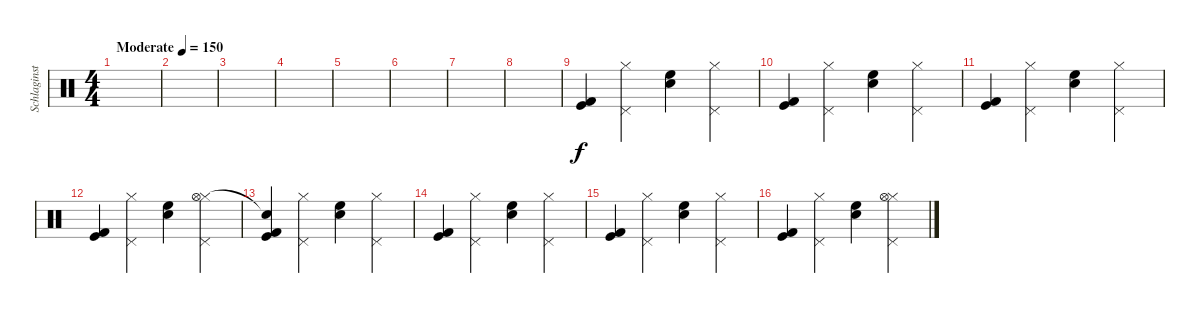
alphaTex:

\track ("Schlaginstrumente - Auswahl" "Schlaginst") {instrument percussion}
\staff {score}
\articulation defaults
\ts (4 4)
\tempo (150 "Moderate")
\clef neutral
\ks c
|
|
|
|
|
|
|
|
("Kick (hit) 2" "Kick (hit)").4 ("Pedal Hi-Hat (hit)" "Hi-Hat (closed)").4 ("High Floor Tom (hit)" "Snare (hit) 2").4 ("Pedal Hi-Hat (hit)" "Hi-Hat (closed)").4 |
("Kick (hit) 2" "Kick (hit)").4 ("Pedal Hi-Hat (hit)" "Hi-Hat (closed)").4 ("High Floor Tom (hit)" "Snare (hit) 2").4 ("Pedal Hi-Hat (hit)" "Hi-Hat (closed)").4 |
("Kick (hit) 2" "Kick (hit)").4 ("Pedal Hi-Hat (hit)" "Hi-Hat (closed)").4 ("High Floor Tom (hit)" "Snare (hit) 2").4 ("Pedal Hi-Hat (hit)" "Hi-Hat (closed)").4 |
("Kick (hit) 2" "Kick (hit)").4 ("Pedal Hi-Hat (hit)" "Hi-Hat (closed)").4 ("High Floor Tom (hit)" "Snare (hit) 2").4 ("Pedal Hi-Hat (hit)" "Hi-Hat (closed)" "Hi-Hat (open)").4 |
("Kick (hit) 2" "Kick (hit)" "Snare (hit)"{t}).4 ("Pedal Hi-Hat (hit)" "Hi-Hat (closed)").4 ("High Floor Tom (hit)" "Snare (hit) 2").4 ("Pedal Hi-Hat (hit)" "Hi-Hat (closed)").4 |
("Kick (hit) 2" "Kick (hit)").4 ("Pedal Hi-Hat (hit)" "Hi-Hat (closed)").4 ("High Floor Tom (hit)" "Snare (hit) 2").4 ("Pedal Hi-Hat (hit)" "Hi-Hat (closed)").4 |
("Kick (hit) 2" "Kick (hit)").4 ("Pedal Hi-Hat (hit)" "Hi-Hat (closed)").4 ("High Floor Tom (hit)" "Snare (hit) 2").4 ("Pedal Hi-Hat (hit)" "Hi-Hat (closed)").4 |
("Kick (hit) 2" "Kick (hit)").4 ("Pedal Hi-Hat (hit)" "Hi-Hat (closed)").4 ("High Floor Tom (hit)" "Snare (hit) 2").4 ("Pedal Hi-Hat (hit)" "Hi-Hat (closed)" "Hi-Hat (open)").4
